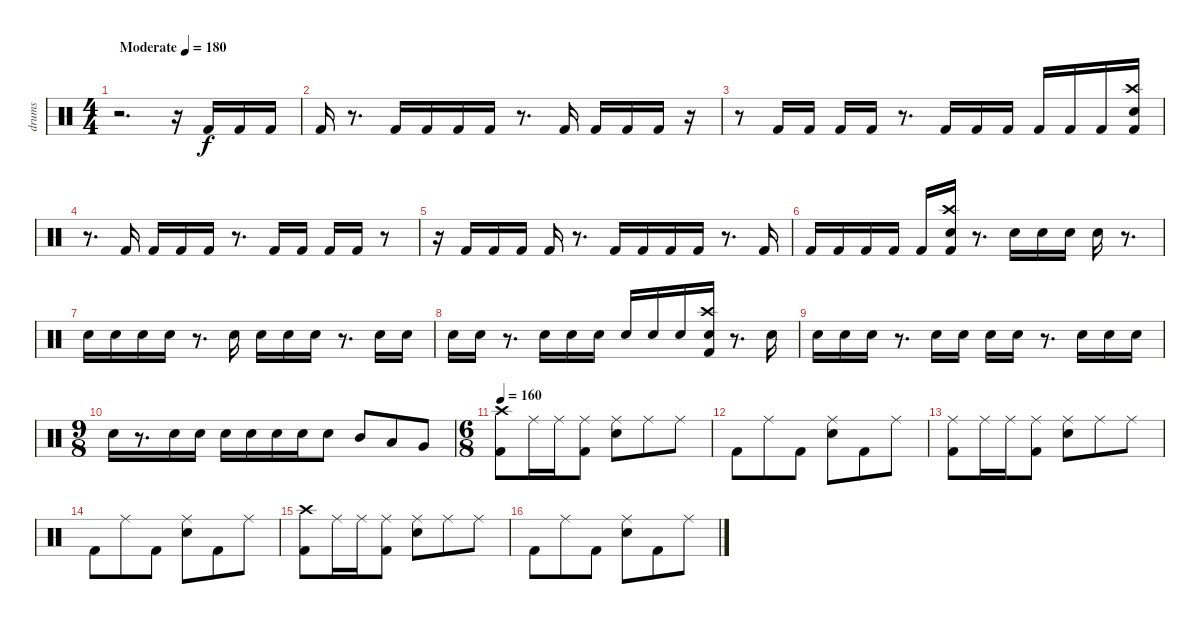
\track ("drums" "drums") {instrument percussion}
\staff {score}
\articulation defaults
\ts (4 4)
\tempo (180 "Moderate")
\clef neutral
\ks c
r.2{d dy f} r.16 "Kick (hit) 2".16 "Kick (hit) 2".16 "Kick (hit) 2".16 |
"Kick (hit) 2".16 r.8{d} "Kick (hit) 2".16 "Kick (hit) 2".16 "Kick (hit) 2".16 "Kick (hit) 2".16 r.8{d} "Kick (hit) 2".16 "Kick (hit) 2".16 "Kick (hit) 2".16 "Kick (hit) 2".16 r.16 |
r.8 "Kick (hit) 2".16 "Kick (hit) 2".16 "Kick (hit) 2".16 "Kick (hit) 2".16 r.8{d} "Kick (hit) 2".16 "Kick (hit) 2".16 "Kick (hit) 2".16 "Kick (hit) 2".16 "Kick (hit) 2".16 "Kick (hit) 2".16 ("Crash high (hit)" "Electric Snare (hit)" "Kick (hit) 2").16 |
r.8{d} "Kick (hit) 2".16 "Kick (hit) 2".16 "Kick (hit) 2".16 "Kick (hit) 2".16 r.8{d} "Kick (hit) 2".16 "Kick (hit) 2".16 "Kick (hit) 2".16 "Kick (hit) 2".16 r.8 |
r.16 "Kick (hit) 2".16 "Kick (hit) 2".16 "Kick (hit) 2".16 "Kick (hit) 2".16 r.8{d} "Kick (hit) 2".16 "Kick (hit) 2".16 "Kick (hit) 2".16 "Kick (hit) 2".16 r.8{d} "Kick (hit) 2".16 |
"Kick (hit) 2".16 "Kick (hit) 2".16 "Kick (hit) 2".16 "Kick (hit) 2".16 "Kick (hit) 2".16 ("Crash high (hit)" "Electric Snare (hit)" "Kick (hit) 2").16 r.8{d} "Electric Snare (hit)".16 "Electric Snare (hit)".16 "Electric Snare (hit)".16 "Electric Snare (hit)".16 r.8{d} |
"Electric Snare (hit)".16 "Electric Snare (hit)".16 "Electric Snare (hit)".16 "Electric Snare (hit)".16 r.8{d} "Electric Snare (hit)".16 "Electric Snare (hit)".16 "Electric Snare (hit)".16 "Electric Snare (hit)".16 r.8{d} "Electric Snare (hit)".16 "Electric Snare (hit)".16 |
"Electric Snare (hit)".16 "Electric Snare (hit)".16 r.8{d} "Electric Snare (hit)".16 "Electric Snare (hit)".16 "Electric Snare (hit)".16 "Electric Snare (hit)".16 "Electric Snare (hit)".16 "Electric Snare (hit)".16 ("Crash high (hit)" "Kick (hit) 2" "Electric Snare (hit)").16 r.8{d} "Electric Snare (hit)".16 |
"Electric Snare (hit)".16 "Electric Snare (hit)".16 "Electric Snare (hit)".16 r.8{d} "Electric Snare (hit)".16 "Electric Snare (hit)".16 "Electric Snare (hit)".16 "Electric Snare (hit)".16 r.8{d} "Electric Snare (hit)".16 "Electric Snare (hit)".16 "Electric Snare (hit)".16 |
\ts (9 8)
"Electric Snare (hit)".16 r.8{d} "Electric Snare (hit)".16 "Electric Snare (hit)".16 "Electric Snare (hit)".16 "Electric Snare (hit)".16 "Electric Snare (hit)".16 "Electric Snare (hit)".16 "Electric Snare (hit)".8 "Mid Tom (hit)".8 "Low Tom (hit)".8 "Very Low Tom (hit)".8 |
\ts (6 8)
\tempo 160
("Kick (hit) 2" "Crash high (hit)").8 "Ride (middle)".16 "Ride (middle)".16 ("Kick (hit) 2" "Ride (middle)").8 ("Electric Snare (hit)" "Ride (middle)").8 "Ride (middle)".8 "Ride (middle)".8 |
"Kick (hit) 2".8 "Ride (middle)".8 "Kick (hit) 2".8 ("Electric Snare (hit)" "Ride (middle)").8 "Kick (hit) 2".8 "Ride (middle)".8 |
("Ride (middle)" "Kick (hit) 2").8 "Ride (middle)".16 "Ride (middle)".16 ("Kick (hit) 2" "Ride (middle)").8 ("Electric Snare (hit)" "Ride (middle)").8 "Ride (middle)".8 "Ride (middle)".8 |
"Kick (hit) 2".8 "Ride (middle)".8 "Kick (hit) 2".8 ("Electric Snare (hit)" "Ride (middle)").8 "Kick (hit) 2".8 "Ride (middle)".8 |
("Kick (hit) 2" "Crash high (hit)").8 "Ride (middle)".16 "Ride (middle)".16 ("Kick (hit) 2" "Ride (middle)").8 ("Electric Snare (hit)" "Ride (middle)").8 "Ride (middle)".8 "Ride (middle)".8 |
"Kick (hit) 2".8 "Ride (middle)".8 "Kick (hit) 2".8 ("Electric Snare (hit)" "Ride (middle)").8 "Kick (hit) 2".8 "Ride (middle)".8
